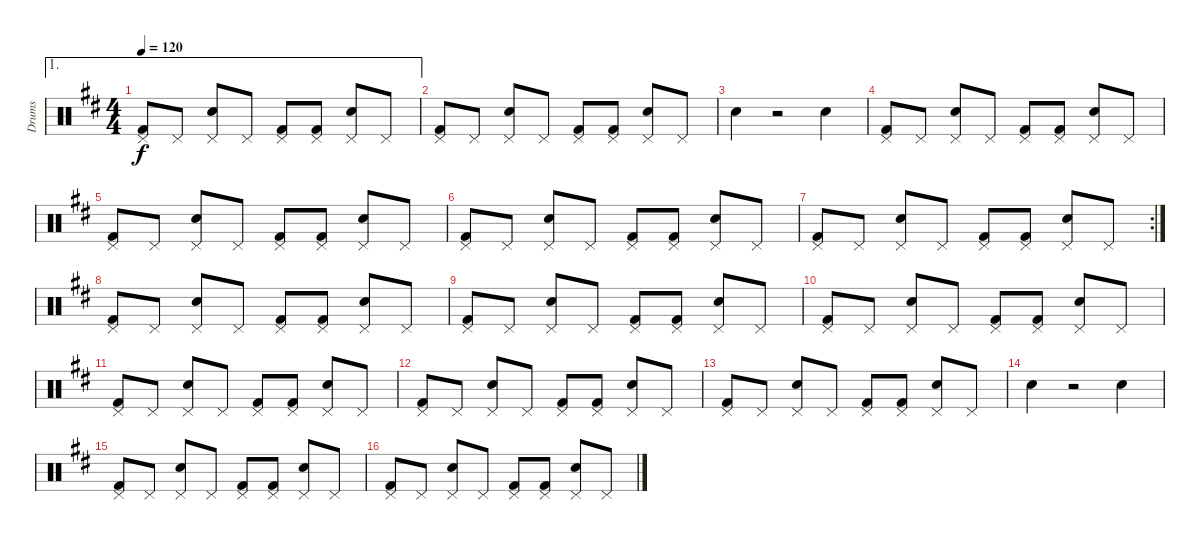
\track ("Drums" "Drums") {instrument percussion}
\staff {score}
\articulation defaults
\ae 1
\ts (4 4)
\tempo 120
\clef neutral
\ks d
("Pedal Hi-Hat (hit)" "Kick (hit) 2").8{dy f} "Pedal Hi-Hat (hit)".8 ("Pedal Hi-Hat (hit)" "Electric Snare (hit)").8 "Pedal Hi-Hat (hit)".8 ("Pedal Hi-Hat (hit)" "Kick (hit) 2").8 ("Pedal Hi-Hat (hit)" "Kick (hit) 2").8 ("Pedal Hi-Hat (hit)" "Electric Snare (hit)").8 "Pedal Hi-Hat (hit)".8 |
("Pedal Hi-Hat (hit)" "Kick (hit) 2").8 "Pedal Hi-Hat (hit)".8 ("Pedal Hi-Hat (hit)" "Electric Snare (hit)").8 "Pedal Hi-Hat (hit)".8 ("Pedal Hi-Hat (hit)" "Kick (hit) 2").8 ("Pedal Hi-Hat (hit)" "Kick (hit) 2").8 ("Pedal Hi-Hat (hit)" "Electric Snare (hit)").8 "Pedal Hi-Hat (hit)".8 |
"Electric Snare (hit)".4 r.2 "Electric Snare (hit)".4 |
("Pedal Hi-Hat (hit)" "Kick (hit) 2").8 "Pedal Hi-Hat (hit)".8 ("Pedal Hi-Hat (hit)" "Electric Snare (hit)").8 "Pedal Hi-Hat (hit)".8 ("Pedal Hi-Hat (hit)" "Kick (hit) 2").8 ("Pedal Hi-Hat (hit)" "Kick (hit) 2").8 ("Pedal Hi-Hat (hit)" "Electric Snare (hit)").8 "Pedal Hi-Hat (hit)".8 |
("Pedal Hi-Hat (hit)" "Kick (hit) 2").8 "Pedal Hi-Hat (hit)".8 ("Pedal Hi-Hat (hit)" "Electric Snare (hit)").8 "Pedal Hi-Hat (hit)".8 ("Pedal Hi-Hat (hit)" "Kick (hit) 2").8 ("Pedal Hi-Hat (hit)" "Kick (hit) 2").8 ("Pedal Hi-Hat (hit)" "Electric Snare (hit)").8 "Pedal Hi-Hat (hit)".8 |
("Pedal Hi-Hat (hit)" "Kick (hit) 2").8 "Pedal Hi-Hat (hit)".8 ("Pedal Hi-Hat (hit)" "Electric Snare (hit)").8 "Pedal Hi-Hat (hit)".8 ("Pedal Hi-Hat (hit)" "Kick (hit) 2").8 ("Pedal Hi-Hat (hit)" "Kick (hit) 2").8 ("Pedal Hi-Hat (hit)" "Electric Snare (hit)").8 "Pedal Hi-Hat (hit)".8 |
\rc 2
("Pedal Hi-Hat (hit)" "Kick (hit) 2").8 "Pedal Hi-Hat (hit)".8 ("Pedal Hi-Hat (hit)" "Electric Snare (hit)").8 "Pedal Hi-Hat (hit)".8 ("Pedal Hi-Hat (hit)" "Kick (hit) 2").8 ("Pedal Hi-Hat (hit)" "Kick (hit) 2").8 ("Pedal Hi-Hat (hit)" "Electric Snare (hit)").8 "Pedal Hi-Hat (hit)".8 |
("Pedal Hi-Hat (hit)" "Kick (hit) 2").8 "Pedal Hi-Hat (hit)".8 ("Pedal Hi-Hat (hit)" "Electric Snare (hit)").8 "Pedal Hi-Hat (hit)".8 ("Pedal Hi-Hat (hit)" "Kick (hit) 2").8 ("Pedal Hi-Hat (hit)" "Kick (hit) 2").8 ("Pedal Hi-Hat (hit)" "Electric Snare (hit)").8 "Pedal Hi-Hat (hit)".8 |
("Pedal Hi-Hat (hit)" "Kick (hit) 2").8 "Pedal Hi-Hat (hit)".8 ("Pedal Hi-Hat (hit)" "Electric Snare (hit)").8 "Pedal Hi-Hat (hit)".8 ("Pedal Hi-Hat (hit)" "Kick (hit) 2").8 ("Pedal Hi-Hat (hit)" "Kick (hit) 2").8 ("Pedal Hi-Hat (hit)" "Electric Snare (hit)").8 "Pedal Hi-Hat (hit)".8 |
("Pedal Hi-Hat (hit)" "Kick (hit) 2").8 "Pedal Hi-Hat (hit)".8 ("Pedal Hi-Hat (hit)" "Electric Snare (hit)").8 "Pedal Hi-Hat (hit)".8 ("Pedal Hi-Hat (hit)" "Kick (hit) 2").8 ("Pedal Hi-Hat (hit)" "Kick (hit) 2").8 ("Pedal Hi-Hat (hit)" "Electric Snare (hit)").8 "Pedal Hi-Hat (hit)".8 |
("Pedal Hi-Hat (hit)" "Kick (hit) 2").8 "Pedal Hi-Hat (hit)".8 ("Pedal Hi-Hat (hit)" "Electric Snare (hit)").8 "Pedal Hi-Hat (hit)".8 ("Pedal Hi-Hat (hit)" "Kick (hit) 2").8 ("Pedal Hi-Hat (hit)" "Kick (hit) 2").8 ("Pedal Hi-Hat (hit)" "Electric Snare (hit)").8 "Pedal Hi-Hat (hit)".8 |
("Pedal Hi-Hat (hit)" "Kick (hit) 2").8 "Pedal Hi-Hat (hit)".8 ("Pedal Hi-Hat (hit)" "Electric Snare (hit)").8 "Pedal Hi-Hat (hit)".8 ("Pedal Hi-Hat (hit)" "Kick (hit) 2").8 ("Pedal Hi-Hat (hit)" "Kick (hit) 2").8 ("Pedal Hi-Hat (hit)" "Electric Snare (hit)").8 "Pedal Hi-Hat (hit)".8 |
("Pedal Hi-Hat (hit)" "Kick (hit) 2").8 "Pedal Hi-Hat (hit)".8 ("Pedal Hi-Hat (hit)" "Electric Snare (hit)").8 "Pedal Hi-Hat (hit)".8 ("Pedal Hi-Hat (hit)" "Kick (hit) 2").8 ("Pedal Hi-Hat (hit)" "Kick (hit) 2").8 ("Pedal Hi-Hat (hit)" "Electric Snare (hit)").8 "Pedal Hi-Hat (hit)".8 |
"Electric Snare (hit)".4 r.2 "Electric Snare (hit)".4 |
("Pedal Hi-Hat (hit)" "Kick (hit) 2").8 "Pedal Hi-Hat (hit)".8 ("Pedal Hi-Hat (hit)" "Electric Snare (hit)").8 "Pedal Hi-Hat (hit)".8 ("Pedal Hi-Hat (hit)" "Kick (hit) 2").8 ("Pedal Hi-Hat (hit)" "Kick (hit) 2").8 ("Pedal Hi-Hat (hit)" "Electric Snare (hit)").8 "Pedal Hi-Hat (hit)".8 |
("Pedal Hi-Hat (hit)" "Kick (hit) 2").8 "Pedal Hi-Hat (hit)".8 ("Pedal Hi-Hat (hit)" "Electric Snare (hit)").8 "Pedal Hi-Hat (hit)".8 ("Pedal Hi-Hat (hit)" "Kick (hit) 2").8 ("Pedal Hi-Hat (hit)" "Kick (hit) 2").8 ("Pedal Hi-Hat (hit)" "Electric Snare (hit)").8 "Pedal Hi-Hat (hit)".8
